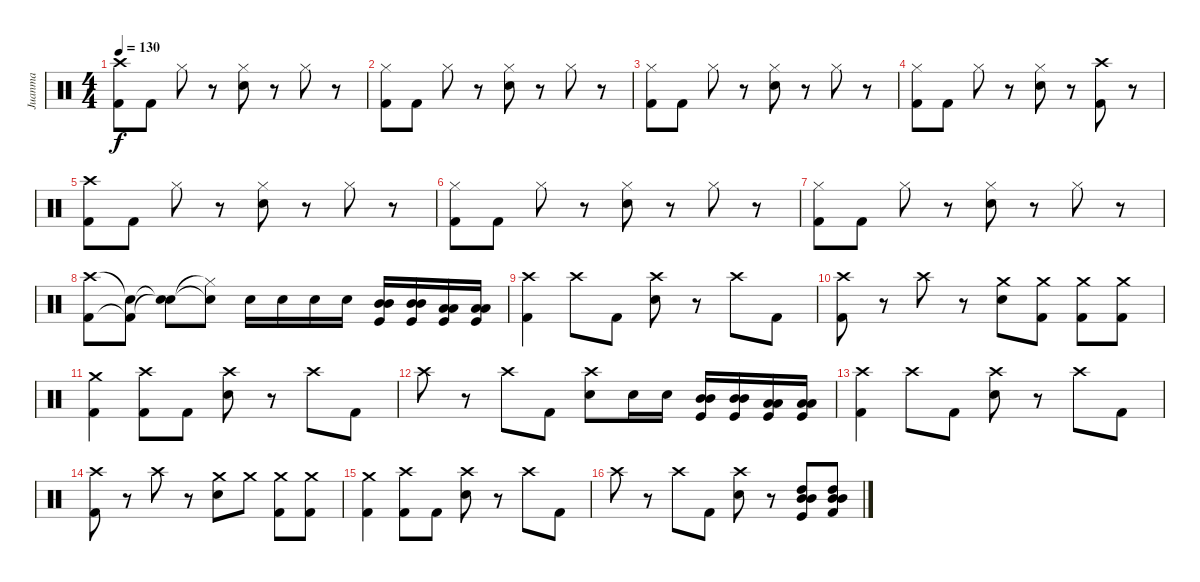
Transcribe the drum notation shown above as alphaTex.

\track ("Juanma" "Juanma") {instrument percussion}
\staff {score}
\articulation defaults
\ts (4 4)
\tempo 130
\clef neutral
\ks c
("Crash high (hit)" "Kick (hit) 2").8{dy f} "Kick (hit) 2".8 "Hi-Hat (closed)".8 r.8 ("Hi-Hat (closed)" "Electric Snare (hit)").8 r.8 "Hi-Hat (closed)".8 r.8 |
("Hi-Hat (closed)" "Kick (hit) 2").8 "Kick (hit) 2".8 "Hi-Hat (closed)".8 r.8 ("Hi-Hat (closed)" "Electric Snare (hit)").8 r.8 "Hi-Hat (closed)".8 r.8 |
("Hi-Hat (closed)" "Kick (hit) 2").8 "Kick (hit) 2".8 "Hi-Hat (closed)".8 r.8 ("Hi-Hat (closed)" "Electric Snare (hit)").8 r.8 "Hi-Hat (closed)".8 r.8 |
("Hi-Hat (closed)" "Kick (hit) 2").8 "Kick (hit) 2".8 "Hi-Hat (closed)".8 r.8 ("Hi-Hat (closed)" "Electric Snare (hit)").8 r.8 ("Crash high (hit)" "Kick (hit) 2").8 r.8 |
("Crash high (hit)" "Kick (hit) 2").8 "Kick (hit) 2".8 "Hi-Hat (closed)".8 r.8 ("Hi-Hat (closed)" "Electric Snare (hit)").8 r.8 "Hi-Hat (closed)".8 r.8 |
("Hi-Hat (closed)" "Kick (hit) 2").8 "Kick (hit) 2".8 "Hi-Hat (closed)".8 r.8 ("Hi-Hat (closed)" "Electric Snare (hit)").8 r.8 "Hi-Hat (closed)".8 r.8 |
("Hi-Hat (closed)" "Kick (hit) 2").8 "Kick (hit) 2".8 "Hi-Hat (closed)".8 r.8 ("Hi-Hat (closed)" "Electric Snare (hit)").8 r.8 "Hi-Hat (closed)".8 r.8 |
("Crash high (hit)" "Kick (hit) 2").8 ("Snare (hit)"{t} "Kick (hit) 2"{t}).8 ("Snare (hit)"{t} "Snare (hit)"{t}).8 ("Hi-Hat (closed)"{t} "Snare (hit)"{t}).8 "Electric Snare (hit)".16 "Electric Snare (hit)".16 "Electric Snare (hit)".16 "Electric Snare (hit)".16 ("Kick (hit)" "Mid Tom (hit)" "Mid Tom (hit)").16 ("Kick (hit)" "Mid Tom (hit)" "Mid Tom (hit)").16 ("Kick (hit)" "Low Tom (hit)" "Low Tom (hit)").16 ("Kick (hit)" "Low Tom (hit)" "Low Tom (hit)").16 |
("Crash high (hit)" "Kick (hit) 2").4 "Crash high (hit)".8 "Kick (hit) 2".8 ("Crash high (hit)" "Electric Snare (hit)").8 r.8 "Crash high (hit)".8 "Kick (hit) 2".8 |
("Crash high (hit)" "Kick (hit) 2").8 r.8 "Crash high (hit)".8 r.8 ("Crash medium (hit)" "Electric Snare (hit)").8 ("Crash medium (hit)" "Kick (hit) 2").8 ("Crash medium (hit)" "Kick (hit) 2").8 ("Crash medium (hit)" "Kick (hit) 2").8 |
("Crash medium (hit)" "Kick (hit) 2").4 ("Crash high (hit)" "Kick (hit) 2").8 "Kick (hit) 2".8 ("Crash high (hit)" "Electric Snare (hit)").8 r.8 "Crash high (hit)".8 "Kick (hit) 2".8 |
"Crash high (hit)".8 r.8 "Crash high (hit)".8 "Kick (hit) 2".8 ("Crash high (hit)" "Electric Snare (hit)").8 "Electric Snare (hit)".16 "Electric Snare (hit)".16 ("Kick (hit)" "Mid Tom (hit)" "Mid Tom (hit)").16 ("Kick (hit)" "Mid Tom (hit)" "Mid Tom (hit)").16 ("Kick (hit)" "Low Tom (hit)" "Low Tom (hit)").16 ("Kick (hit)" "Low Tom (hit)" "Low Tom (hit)").16 |
("Crash high (hit)" "Kick (hit) 2").4 "Crash high (hit)".8 "Kick (hit) 2".8 ("Crash high (hit)" "Electric Snare (hit)").8 r.8 "Crash high (hit)".8 "Kick (hit) 2".8 |
("Crash high (hit)" "Kick (hit) 2").8 r.8 "Crash high (hit)".8 r.8 ("Crash medium (hit)" "Electric Snare (hit)").8 "Crash medium (hit)".8 ("Crash medium (hit)" "Kick (hit) 2").8 ("Crash medium (hit)" "Kick (hit) 2").8 |
("Crash medium (hit)" "Kick (hit) 2").4 ("Crash high (hit)" "Kick (hit) 2").8 "Kick (hit) 2".8 ("Crash high (hit)" "Electric Snare (hit)").8 r.8 "Crash high (hit)".8 "Kick (hit) 2".8 |
"Crash high (hit)".8 r.8 "Crash high (hit)".8 "Kick (hit) 2".8 ("Crash high (hit)" "Electric Snare (hit)").8 r.8 ("Kick (hit)" "Mid Tom (hit)" "Mid Tom (hit)" "High Tom (hit)").8 ("Kick (hit) 2" "Mid Tom (hit)" "Mid Tom (hit)" "High Tom (hit)").8
